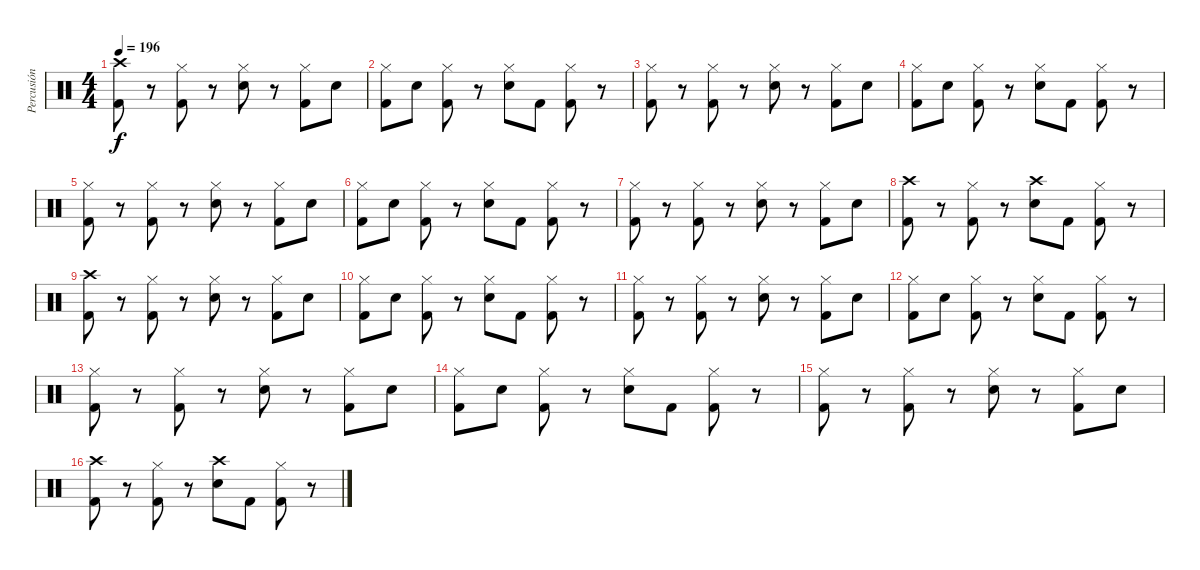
\track ("Percusión" "Percusión") {instrument percussion}
\staff {score}
\articulation defaults
\ts (4 4)
\tempo 196
\clef neutral
\ks c
("Crash high (hit)" "Kick (hit) 2").8{dy f} r.8 ("Hi-Hat (closed)" "Kick (hit) 2").8 r.8 ("Hi-Hat (closed)" "Snare (hit) 2").8 r.8 ("Hi-Hat (closed)" "Kick (hit) 2").8 "Snare (hit) 2".8 |
("Hi-Hat (closed)" "Kick (hit) 2").8 "Snare (hit) 2".8 ("Hi-Hat (closed)" "Kick (hit) 2").8 r.8 ("Hi-Hat (closed)" "Snare (hit) 2").8 "Kick (hit) 2".8 ("Hi-Hat (closed)" "Kick (hit) 2").8 r.8 |
("Hi-Hat (closed)" "Kick (hit) 2").8 r.8 ("Hi-Hat (closed)" "Kick (hit) 2").8 r.8 ("Hi-Hat (closed)" "Snare (hit) 2").8 r.8 ("Hi-Hat (closed)" "Kick (hit) 2").8 "Snare (hit) 2".8 |
("Hi-Hat (closed)" "Kick (hit) 2").8 "Snare (hit) 2".8 ("Hi-Hat (closed)" "Kick (hit) 2").8 r.8 ("Hi-Hat (closed)" "Snare (hit) 2").8 "Kick (hit) 2".8 ("Hi-Hat (closed)" "Kick (hit) 2").8 r.8 |
("Hi-Hat (closed)" "Kick (hit) 2").8 r.8 ("Hi-Hat (closed)" "Kick (hit) 2").8 r.8 ("Hi-Hat (closed)" "Snare (hit) 2").8 r.8 ("Hi-Hat (closed)" "Kick (hit) 2").8 "Snare (hit) 2".8 |
("Hi-Hat (closed)" "Kick (hit) 2").8 "Snare (hit) 2".8 ("Hi-Hat (closed)" "Kick (hit) 2").8 r.8 ("Hi-Hat (closed)" "Snare (hit) 2").8 "Kick (hit) 2".8 ("Hi-Hat (closed)" "Kick (hit) 2").8 r.8 |
("Hi-Hat (closed)" "Kick (hit) 2").8 r.8 ("Hi-Hat (closed)" "Kick (hit) 2").8 r.8 ("Hi-Hat (closed)" "Snare (hit) 2").8 r.8 ("Hi-Hat (closed)" "Kick (hit) 2").8 "Snare (hit) 2".8 |
("Crash high (hit)" "Kick (hit) 2").8 r.8 ("Hi-Hat (closed)" "Kick (hit) 2").8 r.8 ("Crash high (hit)" "Snare (hit) 2").8 "Kick (hit) 2".8 ("Hi-Hat (closed)" "Kick (hit) 2").8 r.8 |
("Crash high (hit)" "Kick (hit) 2").8 r.8 ("Hi-Hat (closed)" "Kick (hit) 2").8 r.8 ("Hi-Hat (closed)" "Snare (hit) 2").8 r.8 ("Hi-Hat (closed)" "Kick (hit) 2").8 "Snare (hit) 2".8 |
("Hi-Hat (closed)" "Kick (hit) 2").8 "Snare (hit) 2".8 ("Hi-Hat (closed)" "Kick (hit) 2").8 r.8 ("Hi-Hat (closed)" "Snare (hit) 2").8 "Kick (hit) 2".8 ("Hi-Hat (closed)" "Kick (hit) 2").8 r.8 |
("Hi-Hat (closed)" "Kick (hit) 2").8 r.8 ("Hi-Hat (closed)" "Kick (hit) 2").8 r.8 ("Hi-Hat (closed)" "Snare (hit) 2").8 r.8 ("Hi-Hat (closed)" "Kick (hit) 2").8 "Snare (hit) 2".8 |
("Hi-Hat (closed)" "Kick (hit) 2").8 "Snare (hit) 2".8 ("Hi-Hat (closed)" "Kick (hit) 2").8 r.8 ("Hi-Hat (closed)" "Snare (hit) 2").8 "Kick (hit) 2".8 ("Hi-Hat (closed)" "Kick (hit) 2").8 r.8 |
("Hi-Hat (closed)" "Kick (hit) 2").8 r.8 ("Hi-Hat (closed)" "Kick (hit) 2").8 r.8 ("Hi-Hat (closed)" "Snare (hit) 2").8 r.8 ("Hi-Hat (closed)" "Kick (hit) 2").8 "Snare (hit) 2".8 |
("Hi-Hat (closed)" "Kick (hit) 2").8 "Snare (hit) 2".8 ("Hi-Hat (closed)" "Kick (hit) 2").8 r.8 ("Hi-Hat (closed)" "Snare (hit) 2").8 "Kick (hit) 2".8 ("Hi-Hat (closed)" "Kick (hit) 2").8 r.8 |
("Hi-Hat (closed)" "Kick (hit) 2").8 r.8 ("Hi-Hat (closed)" "Kick (hit) 2").8 r.8 ("Hi-Hat (closed)" "Snare (hit) 2").8 r.8 ("Hi-Hat (closed)" "Kick (hit) 2").8 "Snare (hit) 2".8 |
("Crash high (hit)" "Kick (hit) 2").8 r.8 ("Hi-Hat (closed)" "Kick (hit) 2").8 r.8 ("Crash high (hit)" "Snare (hit) 2").8 "Kick (hit) 2".8 ("Hi-Hat (closed)" "Kick (hit) 2").8 r.8
